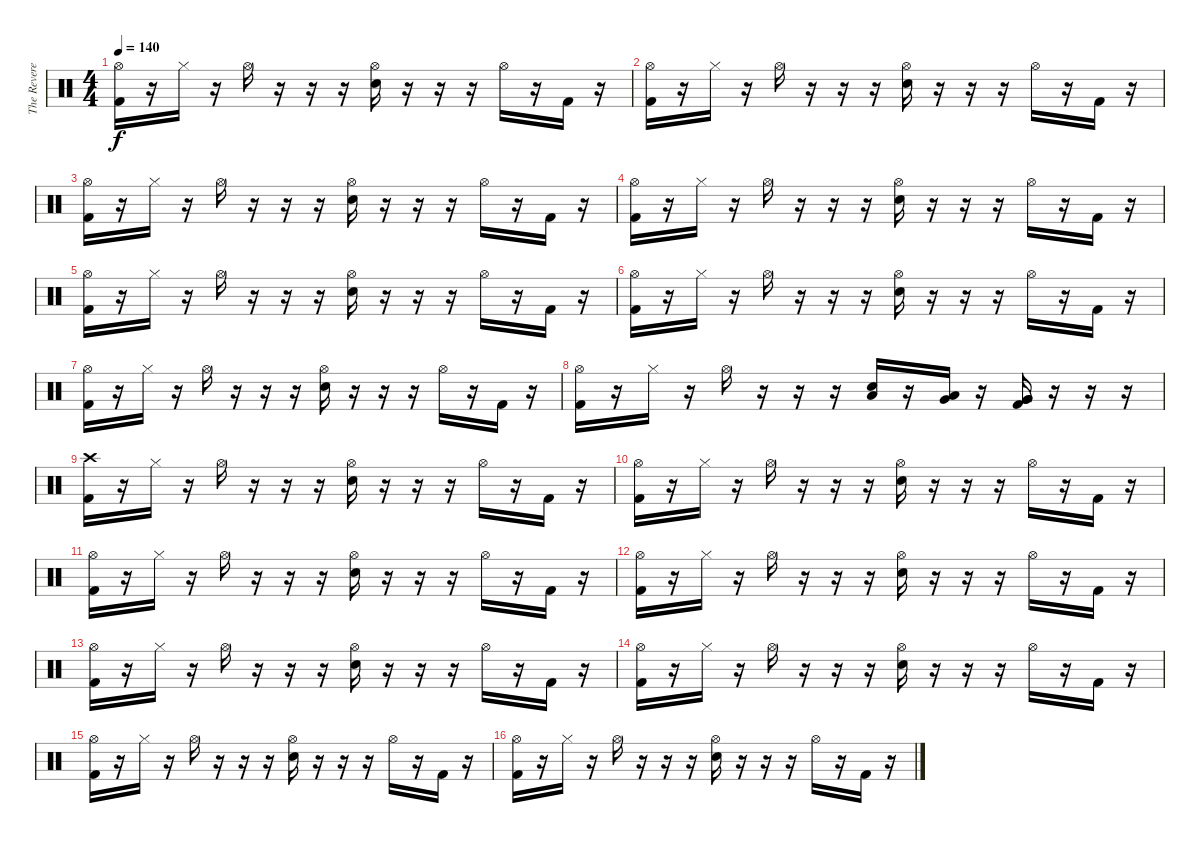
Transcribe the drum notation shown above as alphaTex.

\track ("The Reverend" "The Revere") {instrument percussion}
\staff {score}
\articulation defaults
\ts (4 4)
\tempo 140
\clef neutral
\ks c
("Hi-Hat (open)" "Kick (hit) 2").16{dy f} r.16 "Hi-Hat (closed)".16 r.16 "Hi-Hat (open)".16 r.16 r.16 r.16 ("Hi-Hat (open)" "Electric Snare (hit)").16 r.16 r.16 r.16 "Hi-Hat (open)".16 r.16 "Kick (hit) 2".16 r.16 |
("Hi-Hat (open)" "Kick (hit) 2").16 r.16 "Hi-Hat (closed)".16 r.16 "Hi-Hat (open)".16 r.16 r.16 r.16 ("Hi-Hat (open)" "Electric Snare (hit)").16 r.16 r.16 r.16 "Hi-Hat (open)".16 r.16 "Kick (hit) 2".16 r.16 |
("Hi-Hat (open)" "Kick (hit) 2").16 r.16 "Hi-Hat (closed)".16 r.16 "Hi-Hat (open)".16 r.16 r.16 r.16 ("Hi-Hat (open)" "Electric Snare (hit)").16 r.16 r.16 r.16 "Hi-Hat (open)".16 r.16 "Kick (hit) 2".16 r.16 |
("Hi-Hat (open)" "Kick (hit) 2").16 r.16 "Hi-Hat (closed)".16 r.16 "Hi-Hat (open)".16 r.16 r.16 r.16 ("Hi-Hat (open)" "Electric Snare (hit)").16 r.16 r.16 r.16 "Hi-Hat (open)".16 r.16 "Kick (hit) 2".16 r.16 |
("Hi-Hat (open)" "Kick (hit) 2").16 r.16 "Hi-Hat (closed)".16 r.16 "Hi-Hat (open)".16 r.16 r.16 r.16 ("Hi-Hat (open)" "Electric Snare (hit)").16 r.16 r.16 r.16 "Hi-Hat (open)".16 r.16 "Kick (hit) 2".16 r.16 |
("Hi-Hat (open)" "Kick (hit) 2").16 r.16 "Hi-Hat (closed)".16 r.16 "Hi-Hat (open)".16 r.16 r.16 r.16 ("Hi-Hat (open)" "Electric Snare (hit)").16 r.16 r.16 r.16 "Hi-Hat (open)".16 r.16 "Kick (hit) 2".16 r.16 |
("Hi-Hat (open)" "Kick (hit) 2").16 r.16 "Hi-Hat (closed)".16 r.16 "Hi-Hat (open)".16 r.16 r.16 r.16 ("Hi-Hat (open)" "Electric Snare (hit)").16 r.16 r.16 r.16 "Hi-Hat (open)".16 r.16 "Kick (hit) 2".16 r.16 |
("Hi-Hat (open)" "Kick (hit) 2").16 r.16 "Hi-Hat (closed)".16 r.16 "Hi-Hat (open)".16 r.16 r.16 r.16 ("Low Tom (hit)" "Electric Snare (hit)").16 r.16 ("Very Low Tom (hit)" "Low Tom (hit)").16 r.16 ("Very Low Tom (hit)" "Very Low Tom (hit)" "Kick (hit) 2").16 r.16 r.16 r.16 |
("Crash high (hit)" "Kick (hit) 2").16 r.16 "Hi-Hat (closed)".16 r.16 "Hi-Hat (open)".16 r.16 r.16 r.16 ("Hi-Hat (open)" "Electric Snare (hit)").16 r.16 r.16 r.16 "Hi-Hat (open)".16 r.16 "Kick (hit) 2".16 r.16 |
("Hi-Hat (open)" "Kick (hit) 2").16 r.16 "Hi-Hat (closed)".16 r.16 "Hi-Hat (open)".16 r.16 r.16 r.16 ("Hi-Hat (open)" "Electric Snare (hit)").16 r.16 r.16 r.16 "Hi-Hat (open)".16 r.16 "Kick (hit) 2".16 r.16 |
("Hi-Hat (open)" "Kick (hit) 2").16 r.16 "Hi-Hat (closed)".16 r.16 "Hi-Hat (open)".16 r.16 r.16 r.16 ("Hi-Hat (open)" "Electric Snare (hit)").16 r.16 r.16 r.16 "Hi-Hat (open)".16 r.16 "Kick (hit) 2".16 r.16 |
("Hi-Hat (open)" "Kick (hit) 2").16 r.16 "Hi-Hat (closed)".16 r.16 "Hi-Hat (open)".16 r.16 r.16 r.16 ("Hi-Hat (open)" "Electric Snare (hit)").16 r.16 r.16 r.16 "Hi-Hat (open)".16 r.16 "Kick (hit) 2".16 r.16 |
("Hi-Hat (open)" "Kick (hit) 2").16 r.16 "Hi-Hat (closed)".16 r.16 "Hi-Hat (open)".16 r.16 r.16 r.16 ("Hi-Hat (open)" "Electric Snare (hit)").16 r.16 r.16 r.16 "Hi-Hat (open)".16 r.16 "Kick (hit) 2".16 r.16 |
("Hi-Hat (open)" "Kick (hit) 2").16 r.16 "Hi-Hat (closed)".16 r.16 "Hi-Hat (open)".16 r.16 r.16 r.16 ("Hi-Hat (open)" "Electric Snare (hit)").16 r.16 r.16 r.16 "Hi-Hat (open)".16 r.16 "Kick (hit) 2".16 r.16 |
("Hi-Hat (open)" "Kick (hit) 2").16 r.16 "Hi-Hat (closed)".16 r.16 "Hi-Hat (open)".16 r.16 r.16 r.16 ("Hi-Hat (open)" "Electric Snare (hit)").16 r.16 r.16 r.16 "Hi-Hat (open)".16 r.16 "Kick (hit) 2".16 r.16 |
("Hi-Hat (open)" "Kick (hit) 2").16 r.16 "Hi-Hat (closed)".16 r.16 "Hi-Hat (open)".16 r.16 r.16 r.16 ("Hi-Hat (open)" "Electric Snare (hit)").16 r.16 r.16 r.16 "Hi-Hat (open)".16 r.16 "Kick (hit) 2".16 r.16
